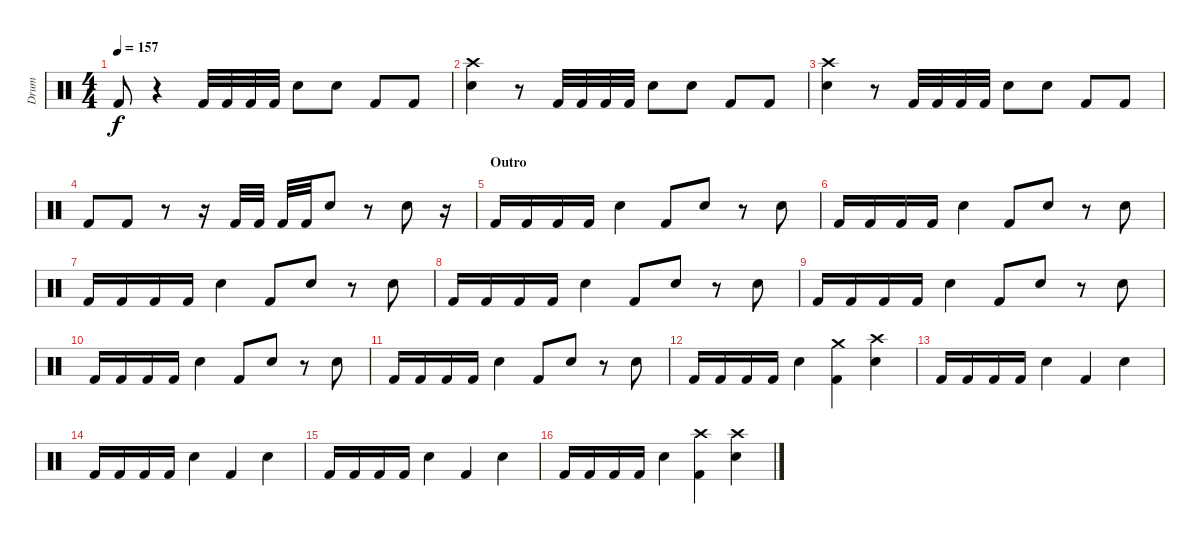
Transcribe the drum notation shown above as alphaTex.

\track ("Drum" "Drum") {instrument percussion}
\staff {score}
\articulation defaults
\ts (4 4)
\tempo 157
\clef neutral
\ks c "Kick (hit) 2".8{dy f}
r.4 "Kick (hit) 2".32 "Kick (hit) 2".32 "Kick (hit) 2".32 "Kick (hit) 2".32 "Electric Snare (hit)".8 "Electric Snare (hit)".8 "Kick (hit) 2".8 "Kick (hit) 2".8 |
("Crash high (hit)" "Electric Snare (hit)").4 r.8 "Kick (hit) 2".32 "Kick (hit) 2".32 "Kick (hit) 2".32 "Kick (hit) 2".32 "Electric Snare (hit)".8 "Electric Snare (hit)".8 "Kick (hit) 2".8 "Kick (hit) 2".8 |
("Crash high (hit)" "Electric Snare (hit)").4 r.8 "Kick (hit) 2".32 "Kick (hit) 2".32 "Kick (hit) 2".32 "Kick (hit) 2".32 "Electric Snare (hit)".8 "Electric Snare (hit)".8 "Kick (hit) 2".8 "Kick (hit) 2".8 |
"Kick (hit) 2".8 "Kick (hit) 2".8 r.8 r.16 "Kick (hit) 2".32 "Kick (hit) 2".32 "Kick (hit) 2".32 "Kick (hit) 2".32 "Electric Snare (hit)".8 r.8 "Electric Snare (hit)".8 r.16 |
\section ("" "Outro")
"Kick (hit) 2".16 "Kick (hit) 2".16 "Kick (hit) 2".16 "Kick (hit) 2".16 "Electric Snare (hit)".4 "Kick (hit) 2".8 "Electric Snare (hit)".8 r.8 "Electric Snare (hit)".8 |
"Kick (hit) 2".16 "Kick (hit) 2".16 "Kick (hit) 2".16 "Kick (hit) 2".16 "Electric Snare (hit)".4 "Kick (hit) 2".8 "Electric Snare (hit)".8 r.8 "Electric Snare (hit)".8 |
"Kick (hit) 2".16 "Kick (hit) 2".16 "Kick (hit) 2".16 "Kick (hit) 2".16 "Electric Snare (hit)".4 "Kick (hit) 2".8 "Electric Snare (hit)".8 r.8 "Electric Snare (hit)".8 |
"Kick (hit) 2".16 "Kick (hit) 2".16 "Kick (hit) 2".16 "Kick (hit) 2".16 "Electric Snare (hit)".4 "Kick (hit) 2".8 "Electric Snare (hit)".8 r.8 "Electric Snare (hit)".8 |
"Kick (hit) 2".16 "Kick (hit) 2".16 "Kick (hit) 2".16 "Kick (hit) 2".16 "Electric Snare (hit)".4 "Kick (hit) 2".8 "Electric Snare (hit)".8 r.8 "Electric Snare (hit)".8 |
"Kick (hit) 2".16 "Kick (hit) 2".16 "Kick (hit) 2".16 "Kick (hit) 2".16 "Electric Snare (hit)".4 "Kick (hit) 2".8 "Electric Snare (hit)".8 r.8 "Electric Snare (hit)".8 |
"Kick (hit) 2".16 "Kick (hit) 2".16 "Kick (hit) 2".16 "Kick (hit) 2".16 "Electric Snare (hit)".4 "Kick (hit) 2".8 "Electric Snare (hit)".8 r.8 "Electric Snare (hit)".8 |
"Kick (hit) 2".16 "Kick (hit) 2".16 "Kick (hit) 2".16 "Kick (hit) 2".16 "Electric Snare (hit)".4 ("Crash medium (hit)" "Kick (hit) 2").4 ("Crash high (hit)" "Electric Snare (hit)").4 |
"Kick (hit) 2".16 "Kick (hit) 2".16 "Kick (hit) 2".16 "Kick (hit) 2".16 "Electric Snare (hit)".4 "Kick (hit) 2".4 "Electric Snare (hit)".4 |
"Kick (hit) 2".16 "Kick (hit) 2".16 "Kick (hit) 2".16 "Kick (hit) 2".16 "Electric Snare (hit)".4 "Kick (hit) 2".4 "Electric Snare (hit)".4 |
"Kick (hit) 2".16 "Kick (hit) 2".16 "Kick (hit) 2".16 "Kick (hit) 2".16 "Electric Snare (hit)".4 "Kick (hit) 2".4 "Electric Snare (hit)".4 |
"Kick (hit) 2".16 "Kick (hit) 2".16 "Kick (hit) 2".16 "Kick (hit) 2".16 "Electric Snare (hit)".4 ("Crash high (hit)" "Kick (hit) 2").4 ("Crash high (hit)" "Electric Snare (hit)").4
